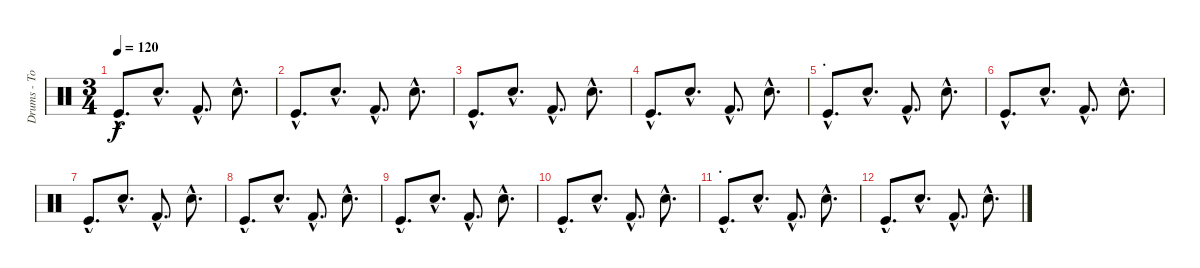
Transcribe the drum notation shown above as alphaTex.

\track ("Drums - Tom" "Drums - To") {instrument percussion}
\staff {score}
\articulation defaults
\ts (3 4)
\tempo 120
\clef neutral
\ks c "Kick (hit)"{hac}.8{d dy f} "Snare (hit) 2"{hac}.8{d} "Kick (hit) 2"{hac}.8{d} "Snare (hit) 2"{hac}.8{d}
|
"Kick (hit)"{hac}.8{d} "Snare (hit) 2"{hac}.8{d} "Kick (hit) 2"{hac}.8{d} "Snare (hit) 2"{hac}.8{d} |
"Kick (hit)"{hac}.8{d} "Snare (hit) 2"{hac}.8{d} "Kick (hit) 2"{hac}.8{d} "Snare (hit) 2"{hac}.8{d} |
"Kick (hit)"{hac}.8{d} "Snare (hit) 2"{hac}.8{d} "Kick (hit) 2"{hac}.8{d} "Snare (hit) 2"{hac}.8{d} |
\section ("" ".")
"Kick (hit)"{hac}.8{d} "Snare (hit) 2"{hac}.8{d} "Kick (hit) 2"{hac}.8{d} "Snare (hit) 2"{hac}.8{d} |
"Kick (hit)"{hac}.8{d} "Snare (hit) 2"{hac}.8{d} "Kick (hit) 2"{hac}.8{d} "Snare (hit) 2"{hac}.8{d} |
"Kick (hit)"{hac}.8{d} "Snare (hit) 2"{hac}.8{d} "Kick (hit) 2"{hac}.8{d} "Snare (hit) 2"{hac}.8{d} |
"Kick (hit)"{hac}.8{d} "Snare (hit) 2"{hac}.8{d} "Kick (hit) 2"{hac}.8{d} "Snare (hit) 2"{hac}.8{d} |
"Kick (hit)"{hac}.8{d} "Snare (hit) 2"{hac}.8{d} "Kick (hit) 2"{hac}.8{d} "Snare (hit) 2"{hac}.8{d} |
"Kick (hit)"{hac}.8{d} "Snare (hit) 2"{hac}.8{d} "Kick (hit) 2"{hac}.8{d} "Snare (hit) 2"{hac}.8{d} |
\section ("" ".")
"Kick (hit)"{hac}.8{d} "Snare (hit) 2"{hac}.8{d} "Kick (hit) 2"{hac}.8{d} "Snare (hit) 2"{hac}.8{d} |
"Kick (hit)"{hac}.8{d} "Snare (hit) 2"{hac}.8{d} "Kick (hit) 2"{hac}.8{d} "Snare (hit) 2"{hac}.8{d}
